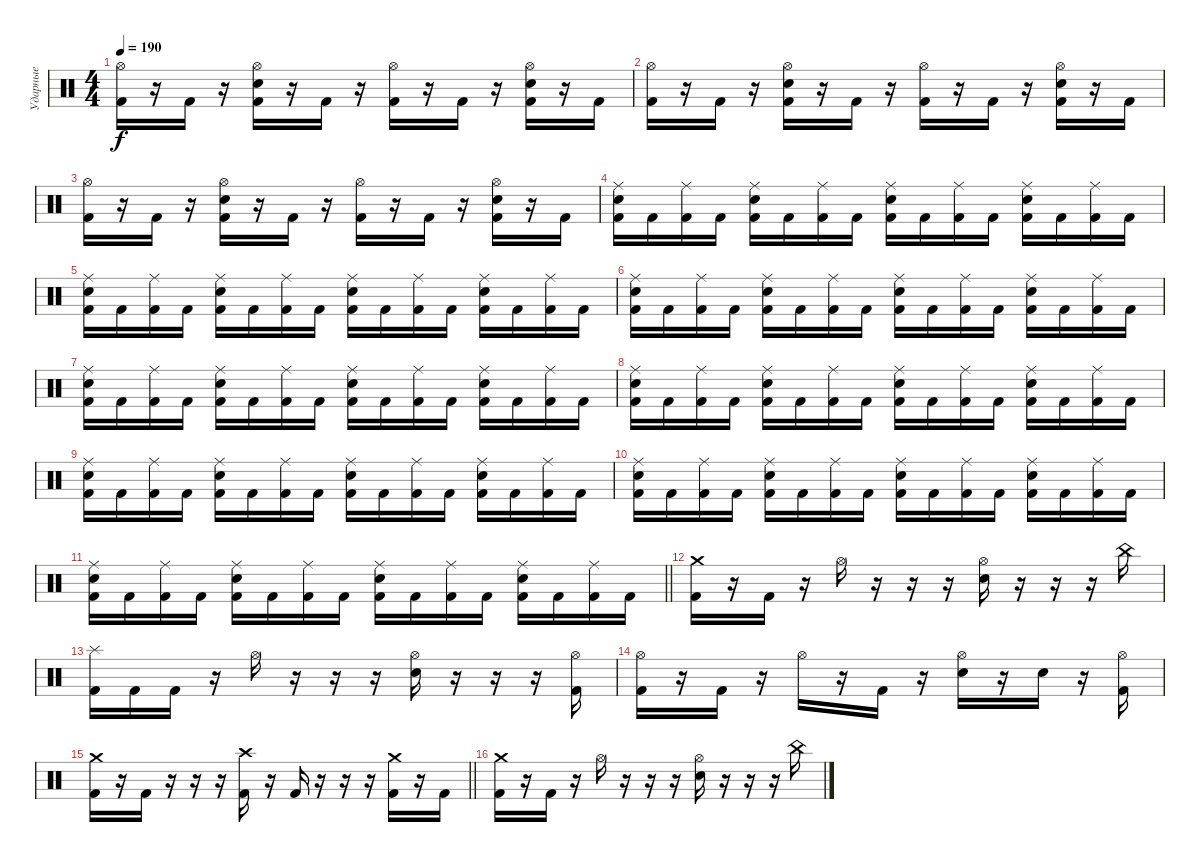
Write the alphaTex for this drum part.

\track ("Ударные" "Ударные") {instrument percussion}
\staff {score}
\articulation defaults
\ts (4 4)
\tempo 190
\clef neutral
\ks c
("Hi-Hat (open)" "Kick (hit) 2").16{dy f} r.16 "Kick (hit) 2".16 r.16 ("Hi-Hat (open)" "Snare (hit) 2" "Kick (hit) 2").16 r.16 "Kick (hit) 2".16 r.16 ("Hi-Hat (open)" "Kick (hit) 2").16 r.16 "Kick (hit) 2".16 r.16 ("Hi-Hat (open)" "Snare (hit) 2" "Kick (hit) 2").16 r.16 "Kick (hit) 2".16 |
("Hi-Hat (open)" "Kick (hit) 2").16 r.16 "Kick (hit) 2".16 r.16 ("Hi-Hat (open)" "Snare (hit) 2" "Kick (hit) 2").16 r.16 "Kick (hit) 2".16 r.16 ("Hi-Hat (open)" "Kick (hit) 2").16 r.16 "Kick (hit) 2".16 r.16 ("Hi-Hat (open)" "Snare (hit) 2" "Kick (hit) 2").16 r.16 "Kick (hit) 2".16 |
("Hi-Hat (open)" "Kick (hit) 2").16 r.16 "Kick (hit) 2".16 r.16 ("Hi-Hat (open)" "Snare (hit) 2" "Kick (hit) 2").16 r.16 "Kick (hit) 2".16 r.16 ("Hi-Hat (open)" "Kick (hit) 2").16 r.16 "Kick (hit) 2".16 r.16 ("Hi-Hat (open)" "Snare (hit) 2" "Kick (hit) 2").16 r.16 "Kick (hit) 2".16 |
("Ride (middle)" "Snare (hit) 2" "Kick (hit) 2").16 "Kick (hit) 2".16 ("Ride (middle)" "Kick (hit) 2").16 "Kick (hit) 2".16 ("Ride (middle)" "Snare (hit) 2" "Kick (hit) 2").16 "Kick (hit) 2".16 ("Ride (middle)" "Kick (hit) 2").16 "Kick (hit) 2".16 ("Ride (middle)" "Snare (hit) 2" "Kick (hit) 2").16 "Kick (hit) 2".16 ("Ride (middle)" "Kick (hit) 2").16 "Kick (hit) 2".16 ("Ride (middle)" "Snare (hit) 2" "Kick (hit) 2").16 "Kick (hit) 2".16 ("Ride (middle)" "Kick (hit) 2").16 "Kick (hit) 2".16 |
("Ride (middle)" "Snare (hit) 2" "Kick (hit) 2").16 "Kick (hit) 2".16 ("Ride (middle)" "Kick (hit) 2").16 "Kick (hit) 2".16 ("Ride (middle)" "Snare (hit) 2" "Kick (hit) 2").16 "Kick (hit) 2".16 ("Ride (middle)" "Kick (hit) 2").16 "Kick (hit) 2".16 ("Ride (middle)" "Snare (hit) 2" "Kick (hit) 2").16 "Kick (hit) 2".16 ("Ride (middle)" "Kick (hit) 2").16 "Kick (hit) 2".16 ("Ride (middle)" "Snare (hit) 2" "Kick (hit) 2").16 "Kick (hit) 2".16 ("Ride (middle)" "Kick (hit) 2").16 "Kick (hit) 2".16 |
("Ride (middle)" "Snare (hit) 2" "Kick (hit) 2").16 "Kick (hit) 2".16 ("Ride (middle)" "Kick (hit) 2").16 "Kick (hit) 2".16 ("Ride (middle)" "Snare (hit) 2" "Kick (hit) 2").16 "Kick (hit) 2".16 ("Ride (middle)" "Kick (hit) 2").16 "Kick (hit) 2".16 ("Ride (middle)" "Snare (hit) 2" "Kick (hit) 2").16 "Kick (hit) 2".16 ("Ride (middle)" "Kick (hit) 2").16 "Kick (hit) 2".16 ("Ride (middle)" "Snare (hit) 2" "Kick (hit) 2").16 "Kick (hit) 2".16 ("Ride (middle)" "Kick (hit) 2").16 "Kick (hit) 2".16 |
("Ride (middle)" "Snare (hit) 2" "Kick (hit) 2").16 "Kick (hit) 2".16 ("Ride (middle)" "Kick (hit) 2").16 "Kick (hit) 2".16 ("Ride (middle)" "Snare (hit) 2" "Kick (hit) 2").16 "Kick (hit) 2".16 ("Ride (middle)" "Kick (hit) 2").16 "Kick (hit) 2".16 ("Ride (middle)" "Snare (hit) 2" "Kick (hit) 2").16 "Kick (hit) 2".16 ("Ride (middle)" "Kick (hit) 2").16 "Kick (hit) 2".16 ("Ride (middle)" "Snare (hit) 2" "Kick (hit) 2").16 "Kick (hit) 2".16 ("Ride (middle)" "Kick (hit) 2").16 "Kick (hit) 2".16 |
("Ride (middle)" "Snare (hit) 2" "Kick (hit) 2").16 "Kick (hit) 2".16 ("Ride (middle)" "Kick (hit) 2").16 "Kick (hit) 2".16 ("Ride (middle)" "Snare (hit) 2" "Kick (hit) 2").16 "Kick (hit) 2".16 ("Ride (middle)" "Kick (hit) 2").16 "Kick (hit) 2".16 ("Ride (middle)" "Snare (hit) 2" "Kick (hit) 2").16 "Kick (hit) 2".16 ("Ride (middle)" "Kick (hit) 2").16 "Kick (hit) 2".16 ("Ride (middle)" "Snare (hit) 2" "Kick (hit) 2").16 "Kick (hit) 2".16 ("Ride (middle)" "Kick (hit) 2").16 "Kick (hit) 2".16 |
("Ride (middle)" "Snare (hit) 2" "Kick (hit) 2").16 "Kick (hit) 2".16 ("Ride (middle)" "Kick (hit) 2").16 "Kick (hit) 2".16 ("Ride (middle)" "Snare (hit) 2" "Kick (hit) 2").16 "Kick (hit) 2".16 ("Ride (middle)" "Kick (hit) 2").16 "Kick (hit) 2".16 ("Ride (middle)" "Snare (hit) 2" "Kick (hit) 2").16 "Kick (hit) 2".16 ("Ride (middle)" "Kick (hit) 2").16 "Kick (hit) 2".16 ("Ride (middle)" "Snare (hit) 2" "Kick (hit) 2").16 "Kick (hit) 2".16 ("Ride (middle)" "Kick (hit) 2").16 "Kick (hit) 2".16 |
("Ride (middle)" "Snare (hit) 2" "Kick (hit) 2").16 "Kick (hit) 2".16 ("Ride (middle)" "Kick (hit) 2").16 "Kick (hit) 2".16 ("Ride (middle)" "Snare (hit) 2" "Kick (hit) 2").16 "Kick (hit) 2".16 ("Ride (middle)" "Kick (hit) 2").16 "Kick (hit) 2".16 ("Ride (middle)" "Snare (hit) 2" "Kick (hit) 2").16 "Kick (hit) 2".16 ("Ride (middle)" "Kick (hit) 2").16 "Kick (hit) 2".16 ("Ride (middle)" "Snare (hit) 2" "Kick (hit) 2").16 "Kick (hit) 2".16 ("Ride (middle)" "Kick (hit) 2").16 "Kick (hit) 2".16 |
\barLineRight lightlight
("Ride (middle)" "Snare (hit) 2" "Kick (hit) 2").16 "Kick (hit) 2".16 ("Ride (middle)" "Kick (hit) 2").16 "Kick (hit) 2".16 ("Ride (middle)" "Snare (hit) 2" "Kick (hit) 2").16 "Kick (hit) 2".16 ("Ride (middle)" "Kick (hit) 2").16 "Kick (hit) 2".16 ("Ride (middle)" "Snare (hit) 2" "Kick (hit) 2").16 "Kick (hit) 2".16 ("Ride (middle)" "Kick (hit) 2").16 "Kick (hit) 2".16 ("Ride (middle)" "Snare (hit) 2" "Kick (hit) 2").16 "Kick (hit) 2".16 ("Ride (middle)" "Kick (hit) 2").16 "Kick (hit) 2".16 |
("Crash medium (hit)" "Kick (hit) 2").16 r.16 "Kick (hit) 2".16 r.16 "Hi-Hat (open)".16 r.16 r.16 r.16 ("Hi-Hat (open)" "Snare (hit) 2").16 r.16 r.16 r.16 "China (hit)".16 |
("Splash (hit)" "Kick (hit) 2").16 "Kick (hit) 2".16 "Kick (hit) 2".16 r.16 "Hi-Hat (open)".16 r.16 r.16 r.16 ("Hi-Hat (open)" "Snare (hit) 2").16 r.16 r.16 r.16 ("Hi-Hat (open)" "Kick (hit) 2").16 |
("Hi-Hat (open)" "Kick (hit) 2").16 r.16 "Kick (hit) 2".16 r.16 "Hi-Hat (open)".16 r.16 "Kick (hit) 2".16 r.16 ("Hi-Hat (open)" "Snare (hit) 2").16 r.16 "Snare (hit) 2".16 r.16 ("Hi-Hat (open)" "Kick (hit) 2").16 |
\barLineRight lightlight
("Crash medium (hit)" "Kick (hit) 2").16 r.16 "Kick (hit) 2".16 r.16 r.16 r.16 ("Crash high (hit)" "Kick (hit) 2").16 r.16 "Kick (hit) 2".16 r.16 r.16 r.16 ("Crash medium (hit)" "Kick (hit) 2").16 r.16 "Kick (hit) 2".16 |
("Crash medium (hit)" "Kick (hit) 2").16 r.16 "Kick (hit) 2".16 r.16 "Hi-Hat (open)".16 r.16 r.16 r.16 ("Hi-Hat (open)" "Snare (hit) 2").16 r.16 r.16 r.16 "China (hit)".16
